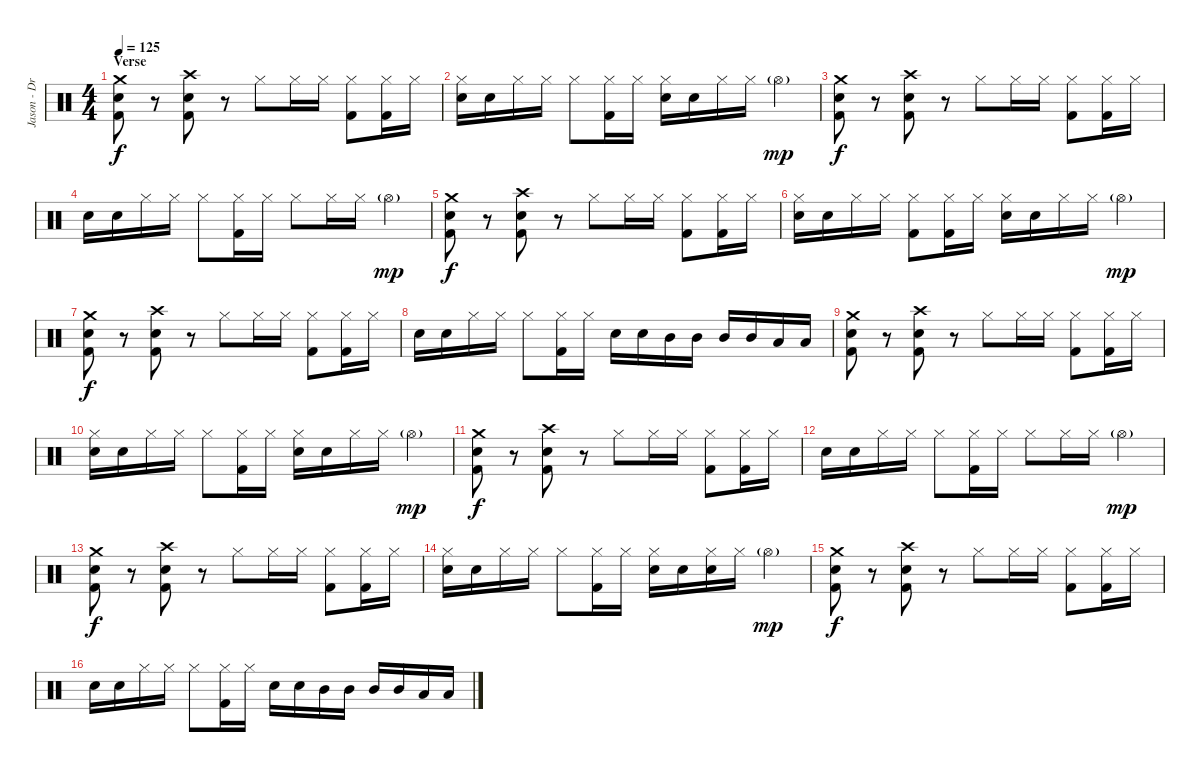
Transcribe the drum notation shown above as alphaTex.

\track ("Jason - Drums" "Jason - Dr") {instrument percussion}
\staff {score}
\articulation defaults
\ts (4 4)
\section ("" "Verse")
\tempo 125
\clef neutral
\ks c
("Crash medium (hit)" "Electric Snare (hit)" "Kick (hit) 2").8{dy f} r.8 ("Crash high (hit)" "Electric Snare (hit)" "Kick (hit) 2").8 r.8 "Hi-Hat (closed)".8 "Hi-Hat (closed)".16 "Hi-Hat (closed)".16 ("Hi-Hat (closed)" "Kick (hit) 2").8 ("Hi-Hat (closed)" "Kick (hit) 2").16 "Hi-Hat (closed)".16 |
("Hi-Hat (closed)" "Electric Snare (hit)").16 "Electric Snare (hit)".16 "Hi-Hat (closed)".16 "Hi-Hat (closed)".16 "Hi-Hat (closed)".8 ("Hi-Hat (closed)" "Kick (hit) 2").16 "Hi-Hat (closed)".16 ("Hi-Hat (closed)" "Electric Snare (hit)").16 "Electric Snare (hit)".16 "Hi-Hat (closed)".16 "Hi-Hat (closed)".16 "Hi-Hat (open)"{g}.4{dy mp} |
("Crash medium (hit)" "Electric Snare (hit)" "Kick (hit) 2").8{dy f} r.8 ("Crash high (hit)" "Electric Snare (hit)" "Kick (hit) 2").8 r.8 "Hi-Hat (closed)".8 "Hi-Hat (closed)".16 "Hi-Hat (closed)".16 ("Hi-Hat (closed)" "Kick (hit) 2").8 ("Hi-Hat (closed)" "Kick (hit) 2").16 "Hi-Hat (closed)".16 |
"Electric Snare (hit)".16 "Electric Snare (hit)".16 "Hi-Hat (closed)".16 "Hi-Hat (closed)".16 "Hi-Hat (closed)".8 ("Hi-Hat (closed)" "Kick (hit) 2").16 "Hi-Hat (closed)".16 "Hi-Hat (closed)".8 "Hi-Hat (closed)".16 "Hi-Hat (closed)".16 "Hi-Hat (open)"{g}.4{dy mp} |
("Crash medium (hit)" "Electric Snare (hit)" "Kick (hit) 2").8{dy f} r.8 ("Crash high (hit)" "Electric Snare (hit)" "Kick (hit) 2").8 r.8 "Hi-Hat (closed)".8 "Hi-Hat (closed)".16 "Hi-Hat (closed)".16 ("Hi-Hat (closed)" "Kick (hit) 2").8 ("Hi-Hat (closed)" "Kick (hit) 2").16 "Hi-Hat (closed)".16 |
("Hi-Hat (closed)" "Electric Snare (hit)").16 "Electric Snare (hit)".16 "Hi-Hat (closed)".16 "Hi-Hat (closed)".16 ("Hi-Hat (closed)" "Kick (hit) 2").8 ("Hi-Hat (closed)" "Kick (hit) 2").16 "Hi-Hat (closed)".16 ("Hi-Hat (closed)" "Electric Snare (hit)").16 "Electric Snare (hit)".16 "Hi-Hat (closed)".16 "Hi-Hat (closed)".16 "Hi-Hat (open)"{g}.4{dy mp} |
("Crash medium (hit)" "Electric Snare (hit)" "Kick (hit) 2").8{dy f} r.8 ("Crash high (hit)" "Electric Snare (hit)" "Kick (hit) 2").8 r.8 "Hi-Hat (closed)".8 "Hi-Hat (closed)".16 "Hi-Hat (closed)".16 ("Hi-Hat (closed)" "Kick (hit) 2").8 ("Hi-Hat (closed)" "Kick (hit) 2").16 "Hi-Hat (closed)".16 |
"Electric Snare (hit)".16 "Electric Snare (hit)".16 "Hi-Hat (closed)".16 "Hi-Hat (closed)".16 "Hi-Hat (closed)".8 ("Hi-Hat (closed)" "Kick (hit) 2").16 "Hi-Hat (closed)".16 "Electric Snare (hit)".16 "Electric Snare (hit)".16 "Mid Tom (hit)".16 "Mid Tom (hit)".16 "Mid Tom (hit)".16 "Mid Tom (hit)".16 "Low Tom (hit)".16 "Low Tom (hit)".16 |
("Crash medium (hit)" "Electric Snare (hit)" "Kick (hit) 2").8 r.8 ("Crash high (hit)" "Electric Snare (hit)" "Kick (hit) 2").8 r.8 "Hi-Hat (closed)".8 "Hi-Hat (closed)".16 "Hi-Hat (closed)".16 ("Hi-Hat (closed)" "Kick (hit) 2").8 ("Hi-Hat (closed)" "Kick (hit) 2").16 "Hi-Hat (closed)".16 |
("Hi-Hat (closed)" "Electric Snare (hit)").16 "Electric Snare (hit)".16 "Hi-Hat (closed)".16 "Hi-Hat (closed)".16 "Hi-Hat (closed)".8 ("Hi-Hat (closed)" "Kick (hit) 2").16 "Hi-Hat (closed)".16 ("Hi-Hat (closed)" "Electric Snare (hit)").16 "Electric Snare (hit)".16 "Hi-Hat (closed)".16 "Hi-Hat (closed)".16 "Hi-Hat (open)"{g}.4{dy mp} |
("Crash medium (hit)" "Electric Snare (hit)" "Kick (hit) 2").8{dy f} r.8 ("Crash high (hit)" "Electric Snare (hit)" "Kick (hit) 2").8 r.8 "Hi-Hat (closed)".8 "Hi-Hat (closed)".16 "Hi-Hat (closed)".16 ("Hi-Hat (closed)" "Kick (hit) 2").8 ("Hi-Hat (closed)" "Kick (hit) 2").16 "Hi-Hat (closed)".16 |
"Electric Snare (hit)".16 "Electric Snare (hit)".16 "Hi-Hat (closed)".16 "Hi-Hat (closed)".16 "Hi-Hat (closed)".8 ("Hi-Hat (closed)" "Kick (hit) 2").16 "Hi-Hat (closed)".16 "Hi-Hat (closed)".8 "Hi-Hat (closed)".16 "Hi-Hat (closed)".16 "Hi-Hat (open)"{g}.4{dy mp} |
("Crash medium (hit)" "Electric Snare (hit)" "Kick (hit) 2").8{dy f} r.8 ("Crash high (hit)" "Electric Snare (hit)" "Kick (hit) 2").8 r.8 "Hi-Hat (closed)".8 "Hi-Hat (closed)".16 "Hi-Hat (closed)".16 ("Hi-Hat (closed)" "Kick (hit) 2").8 ("Hi-Hat (closed)" "Kick (hit) 2").16 "Hi-Hat (closed)".16 |
("Hi-Hat (closed)" "Electric Snare (hit)").16 "Electric Snare (hit)".16 "Hi-Hat (closed)".16 "Hi-Hat (closed)".16 "Hi-Hat (closed)".8 ("Hi-Hat (closed)" "Kick (hit) 2").16 "Hi-Hat (closed)".16 ("Hi-Hat (closed)" "Electric Snare (hit)").16 "Electric Snare (hit)".16 ("Hi-Hat (closed)" "Electric Snare (hit)").16 "Hi-Hat (closed)".16 "Hi-Hat (open)"{g}.4{dy mp} |
("Crash medium (hit)" "Electric Snare (hit)" "Kick (hit) 2").8{dy f} r.8 ("Crash high (hit)" "Electric Snare (hit)" "Kick (hit) 2").8 r.8 "Hi-Hat (closed)".8 "Hi-Hat (closed)".16 "Hi-Hat (closed)".16 ("Hi-Hat (closed)" "Kick (hit) 2").8 ("Hi-Hat (closed)" "Kick (hit) 2").16 "Hi-Hat (closed)".16 |
"Electric Snare (hit)".16 "Electric Snare (hit)".16 "Hi-Hat (closed)".16 "Hi-Hat (closed)".16 "Hi-Hat (closed)".8 ("Hi-Hat (closed)" "Kick (hit) 2").16 "Hi-Hat (closed)".16 "Electric Snare (hit)".16 "Electric Snare (hit)".16 "Mid Tom (hit)".16 "Mid Tom (hit)".16 "Mid Tom (hit)".16 "Mid Tom (hit)".16 "Low Tom (hit)".16 "Low Tom (hit)".16
